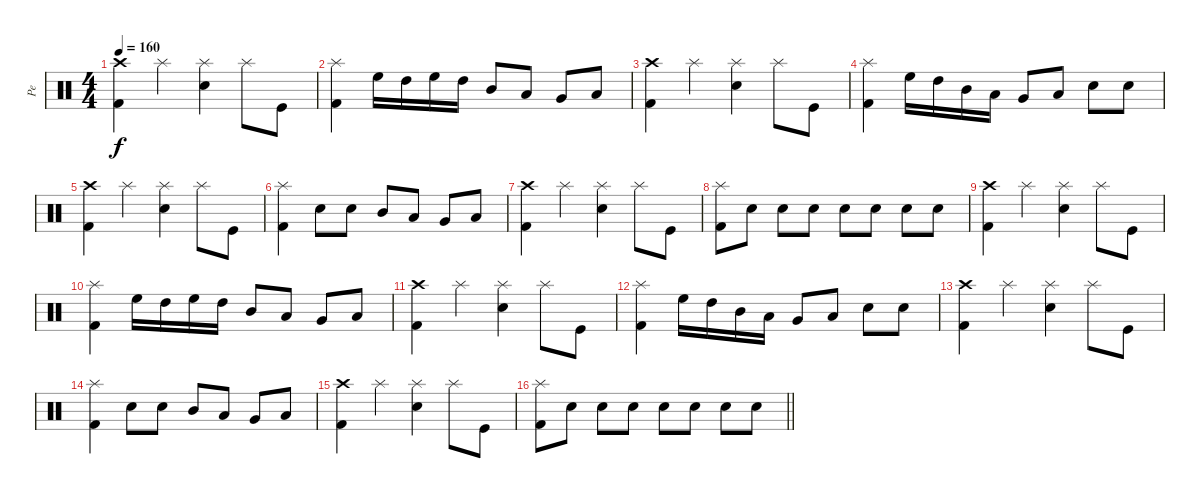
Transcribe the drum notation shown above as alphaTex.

\track ("Pe" "Pe") {instrument percussion}
\staff {score}
\articulation defaults
\ts (4 4)
\tempo 160
\clef neutral
\ks c
("Kick (hit) 2" "Crash high (hit)").4{dy f} "Splash (hit)".4 ("Electric Snare (hit)" "Splash (hit)").4 "Splash (hit)".8 "Kick (hit)".8 |
("Kick (hit) 2" "Splash (hit)").4 "High Floor Tom (hit)".16 "High Tom (hit)".16 "High Floor Tom (hit)".16 "High Tom (hit)".16 "Mid Tom (hit)".8 "Low Tom (hit)".8 "Very Low Tom (hit)".8 "Low Floor Tom (hit)".8 |
("Kick (hit) 2" "Crash high (hit)").4 "Splash (hit)".4 ("Electric Snare (hit)" "Splash (hit)").4 "Splash (hit)".8 "Kick (hit)".8 |
("Kick (hit) 2" "Splash (hit)").4 "High Floor Tom (hit)".16 "High Tom (hit)".16 "Mid Tom (hit)".16 "Low Tom (hit)".16 "Very Low Tom (hit)".8 "Low Floor Tom (hit)".8 "Electric Snare (hit)".8 "Electric Snare (hit)".8 |
("Kick (hit) 2" "Crash high (hit)").4 "Splash (hit)".4 ("Electric Snare (hit)" "Splash (hit)").4 "Splash (hit)".8 "Kick (hit)".8 |
("Kick (hit) 2" "Splash (hit)").4 "Electric Snare (hit)".8 "Electric Snare (hit)".8 "Mid Tom (hit)".8 "Low Tom (hit)".8 "Very Low Tom (hit)".8 "Low Floor Tom (hit)".8 |
("Kick (hit) 2" "Crash high (hit)").4 "Splash (hit)".4 ("Electric Snare (hit)" "Splash (hit)").4 "Splash (hit)".8 "Kick (hit)".8 |
("Kick (hit) 2" "Splash (hit)").8 "Electric Snare (hit)".8 "Electric Snare (hit)".8 "Electric Snare (hit)".8 "Electric Snare (hit)".8 "Electric Snare (hit)".8 "Electric Snare (hit)".8 "Electric Snare (hit)".8 |
("Kick (hit) 2" "Crash high (hit)").4 "Splash (hit)".4 ("Electric Snare (hit)" "Splash (hit)").4 "Splash (hit)".8 "Kick (hit)".8 |
("Kick (hit) 2" "Splash (hit)").4 "High Floor Tom (hit)".16 "High Tom (hit)".16 "High Floor Tom (hit)".16 "High Tom (hit)".16 "Mid Tom (hit)".8 "Low Tom (hit)".8 "Very Low Tom (hit)".8 "Low Floor Tom (hit)".8 |
("Kick (hit) 2" "Crash high (hit)").4 "Splash (hit)".4 ("Electric Snare (hit)" "Splash (hit)").4 "Splash (hit)".8 "Kick (hit)".8 |
("Kick (hit) 2" "Splash (hit)").4 "High Floor Tom (hit)".16 "High Tom (hit)".16 "Mid Tom (hit)".16 "Low Tom (hit)".16 "Very Low Tom (hit)".8 "Low Floor Tom (hit)".8 "Electric Snare (hit)".8 "Electric Snare (hit)".8 |
("Kick (hit) 2" "Crash high (hit)").4 "Splash (hit)".4 ("Electric Snare (hit)" "Splash (hit)").4 "Splash (hit)".8 "Kick (hit)".8 |
("Kick (hit) 2" "Splash (hit)").4 "Electric Snare (hit)".8 "Electric Snare (hit)".8 "Mid Tom (hit)".8 "Low Tom (hit)".8 "Very Low Tom (hit)".8 "Low Floor Tom (hit)".8 |
("Kick (hit) 2" "Crash high (hit)").4 "Splash (hit)".4 ("Electric Snare (hit)" "Splash (hit)").4 "Splash (hit)".8 "Kick (hit)".8 |
\barLineRight lightlight
("Kick (hit) 2" "Splash (hit)").8 "Electric Snare (hit)".8 "Electric Snare (hit)".8 "Electric Snare (hit)".8 "Electric Snare (hit)".8 "Electric Snare (hit)".8 "Electric Snare (hit)".8 "Electric Snare (hit)".8
